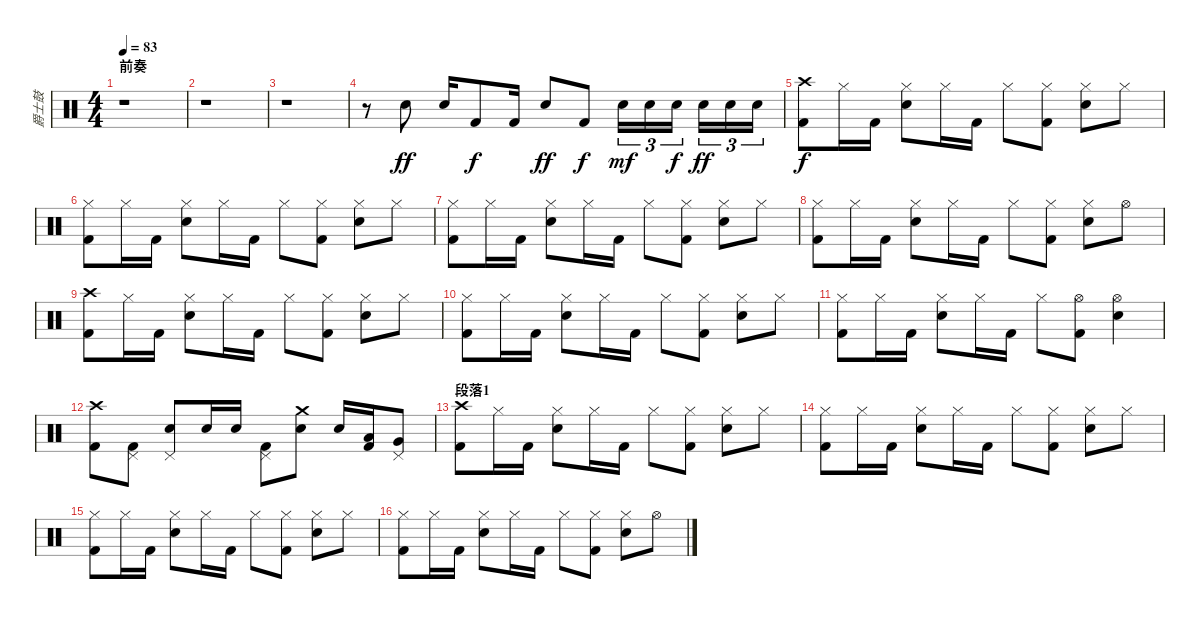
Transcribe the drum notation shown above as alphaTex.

\track ("爵士鼓" "爵士鼓") {instrument percussion}
\staff {score}
\articulation defaults
\ts (4 4)
\section ("" "前奏")
\tempo 83
\clef neutral
\ks c
r.1{dy ff} |
r.1 |
r.1 |
r.8 "Electric Snare (hit)".8 "Electric Snare (hit)".16 "Kick (hit) 2".8{dy f} "Kick (hit) 2".16 "Electric Snare (hit)".8{dy ff} "Kick (hit) 2".8{dy f} "Electric Snare (hit)".16{tu (3 2) dy mf} "Electric Snare (hit)".16{tu (3 2)} "Electric Snare (hit)".16{tu (3 2) dy f} "Electric Snare (hit)".16{tu (3 2) dy ff} "Electric Snare (hit)".16{tu (3 2)} "Electric Snare (hit)".16{tu (3 2)} |
("Crash high (hit)" "Kick (hit) 2").8{dy f} "Hi-Hat (closed)".16 "Kick (hit) 2".16 ("Hi-Hat (closed)" "Electric Snare (hit)").8 "Hi-Hat (closed)".16 "Kick (hit) 2".16 "Hi-Hat (closed)".8 ("Hi-Hat (closed)" "Kick (hit) 2").8 ("Hi-Hat (closed)" "Electric Snare (hit)").8 "Hi-Hat (closed)".8 |
("Hi-Hat (closed)" "Kick (hit) 2").8 "Hi-Hat (closed)".16 "Kick (hit) 2".16 ("Hi-Hat (closed)" "Electric Snare (hit)").8 "Hi-Hat (closed)".16 "Kick (hit) 2".16 "Hi-Hat (closed)".8 ("Hi-Hat (closed)" "Kick (hit) 2").8 ("Hi-Hat (closed)" "Electric Snare (hit)").8 "Hi-Hat (closed)".8 |
("Hi-Hat (closed)" "Kick (hit) 2").8 "Hi-Hat (closed)".16 "Kick (hit) 2".16 ("Hi-Hat (closed)" "Electric Snare (hit)").8 "Hi-Hat (closed)".16 "Kick (hit) 2".16 "Hi-Hat (closed)".8 ("Hi-Hat (closed)" "Kick (hit) 2").8 ("Hi-Hat (closed)" "Electric Snare (hit)").8 "Hi-Hat (closed)".8 |
("Hi-Hat (closed)" "Kick (hit) 2").8 "Hi-Hat (closed)".16 "Kick (hit) 2".16 ("Hi-Hat (closed)" "Electric Snare (hit)").8 "Hi-Hat (closed)".16 "Kick (hit) 2".16 "Hi-Hat (closed)".8 ("Hi-Hat (closed)" "Kick (hit) 2").8 ("Hi-Hat (closed)" "Electric Snare (hit)").8 "Hi-Hat (open)".8 |
("Crash high (hit)" "Kick (hit) 2").8 "Hi-Hat (closed)".16 "Kick (hit) 2".16 ("Hi-Hat (closed)" "Electric Snare (hit)").8 "Hi-Hat (closed)".16 "Kick (hit) 2".16 "Hi-Hat (closed)".8 ("Hi-Hat (closed)" "Kick (hit) 2").8 ("Hi-Hat (closed)" "Electric Snare (hit)").8 "Hi-Hat (closed)".8 |
("Hi-Hat (closed)" "Kick (hit) 2").8 "Hi-Hat (closed)".16 "Kick (hit) 2".16 ("Hi-Hat (closed)" "Electric Snare (hit)").8 "Hi-Hat (closed)".16 "Kick (hit) 2".16 "Hi-Hat (closed)".8 ("Hi-Hat (closed)" "Kick (hit) 2").8 ("Hi-Hat (closed)" "Electric Snare (hit)").8 "Hi-Hat (closed)".8 |
("Hi-Hat (closed)" "Kick (hit) 2").8 "Hi-Hat (closed)".16 "Kick (hit) 2".16 ("Hi-Hat (closed)" "Electric Snare (hit)").8 "Hi-Hat (closed)".16 "Kick (hit) 2".16 "Hi-Hat (closed)".8 ("Hi-Hat (open)" "Kick (hit) 2").8 ("Hi-Hat (open)" "Electric Snare (hit)").4 |
("Crash high (hit)" "Kick (hit) 2").8 ("Pedal Hi-Hat (hit)" "Kick (hit) 2").8 ("Pedal Hi-Hat (hit)" "Electric Snare (hit)").8 "Electric Snare (hit)".16 "Electric Snare (hit)".16 ("Pedal Hi-Hat (hit)" "Kick (hit) 2").8 ("Crash medium (hit)" "Electric Snare (hit)").8 "Electric Snare (hit)".16 ("Low Tom (hit)" "Kick (hit) 2").16 ("Pedal Hi-Hat (hit)" "Very Low Tom (hit)").8 |
\section ("" "段落1")
("Crash high (hit)" "Kick (hit) 2").8 "Hi-Hat (closed)".16 "Kick (hit) 2".16 ("Hi-Hat (closed)" "Electric Snare (hit)").8 "Hi-Hat (closed)".16 "Kick (hit) 2".16 "Hi-Hat (closed)".8 ("Hi-Hat (closed)" "Kick (hit) 2").8 ("Hi-Hat (closed)" "Electric Snare (hit)").8 "Hi-Hat (closed)".8 |
("Hi-Hat (closed)" "Kick (hit) 2").8 "Hi-Hat (closed)".16 "Kick (hit) 2".16 ("Hi-Hat (closed)" "Electric Snare (hit)").8 "Hi-Hat (closed)".16 "Kick (hit) 2".16 "Hi-Hat (closed)".8 ("Hi-Hat (closed)" "Kick (hit) 2").8 ("Hi-Hat (closed)" "Electric Snare (hit)").8 "Hi-Hat (closed)".8 |
("Hi-Hat (closed)" "Kick (hit) 2").8 "Hi-Hat (closed)".16 "Kick (hit) 2".16 ("Hi-Hat (closed)" "Electric Snare (hit)").8 "Hi-Hat (closed)".16 "Kick (hit) 2".16 "Hi-Hat (closed)".8 ("Hi-Hat (closed)" "Kick (hit) 2").8 ("Hi-Hat (closed)" "Electric Snare (hit)").8 "Hi-Hat (closed)".8 |
("Hi-Hat (closed)" "Kick (hit) 2").8 "Hi-Hat (closed)".16 "Kick (hit) 2".16 ("Hi-Hat (closed)" "Electric Snare (hit)").8 "Hi-Hat (closed)".16 "Kick (hit) 2".16 "Hi-Hat (closed)".8 ("Hi-Hat (closed)" "Kick (hit) 2").8 ("Hi-Hat (closed)" "Electric Snare (hit)").8 "Hi-Hat (open)".8
